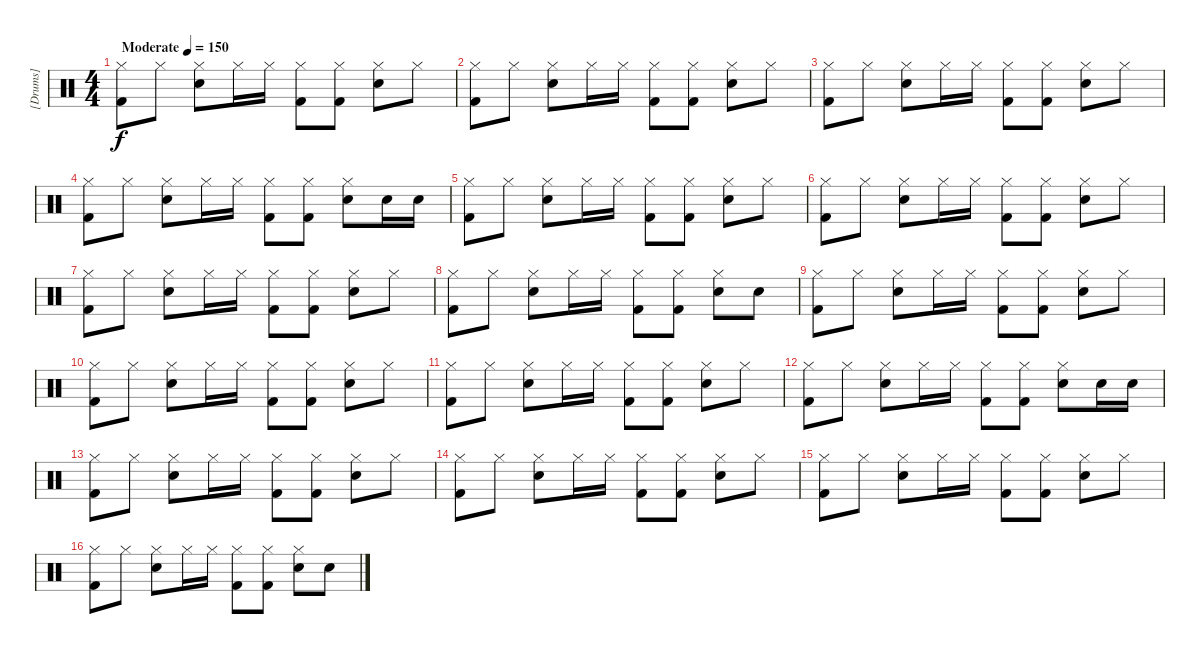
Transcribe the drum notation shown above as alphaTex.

\track ("[Drums]" "[Drums]") {instrument percussion}
\staff {score}
\articulation defaults
\ts (4 4)
\tempo (150 "Moderate")
\clef neutral
\ks c
("Hi-Hat (closed)" "Kick (hit) 2").8{dy f} "Hi-Hat (closed)".8 ("Hi-Hat (closed)" "Electric Snare (hit)").8 "Hi-Hat (closed)".16 "Hi-Hat (closed)".16 ("Hi-Hat (closed)" "Kick (hit) 2").8 ("Hi-Hat (closed)" "Kick (hit) 2").8 ("Hi-Hat (closed)" "Electric Snare (hit)").8 "Hi-Hat (closed)".8 |
("Hi-Hat (closed)" "Kick (hit) 2").8 "Hi-Hat (closed)".8 ("Hi-Hat (closed)" "Electric Snare (hit)").8 "Hi-Hat (closed)".16 "Hi-Hat (closed)".16 ("Hi-Hat (closed)" "Kick (hit) 2").8 ("Hi-Hat (closed)" "Kick (hit) 2").8 ("Hi-Hat (closed)" "Electric Snare (hit)").8 "Hi-Hat (closed)".8 |
("Hi-Hat (closed)" "Kick (hit) 2").8 "Hi-Hat (closed)".8 ("Hi-Hat (closed)" "Electric Snare (hit)").8 "Hi-Hat (closed)".16 "Hi-Hat (closed)".16 ("Hi-Hat (closed)" "Kick (hit) 2").8 ("Hi-Hat (closed)" "Kick (hit) 2").8 ("Hi-Hat (closed)" "Electric Snare (hit)").8 "Hi-Hat (closed)".8 |
("Hi-Hat (closed)" "Kick (hit) 2").8 "Hi-Hat (closed)".8 ("Hi-Hat (closed)" "Electric Snare (hit)").8 "Hi-Hat (closed)".16 "Hi-Hat (closed)".16 ("Hi-Hat (closed)" "Kick (hit) 2").8 ("Hi-Hat (closed)" "Kick (hit) 2").8 ("Hi-Hat (closed)" "Electric Snare (hit)").8 "Electric Snare (hit)".16 "Electric Snare (hit)".16 |
("Hi-Hat (closed)" "Kick (hit) 2").8 "Hi-Hat (closed)".8 ("Hi-Hat (closed)" "Electric Snare (hit)").8 "Hi-Hat (closed)".16 "Hi-Hat (closed)".16 ("Hi-Hat (closed)" "Kick (hit) 2").8 ("Hi-Hat (closed)" "Kick (hit) 2").8 ("Hi-Hat (closed)" "Electric Snare (hit)").8 "Hi-Hat (closed)".8 |
("Hi-Hat (closed)" "Kick (hit) 2").8 "Hi-Hat (closed)".8 ("Hi-Hat (closed)" "Electric Snare (hit)").8 "Hi-Hat (closed)".16 "Hi-Hat (closed)".16 ("Hi-Hat (closed)" "Kick (hit) 2").8 ("Hi-Hat (closed)" "Kick (hit) 2").8 ("Hi-Hat (closed)" "Electric Snare (hit)").8 "Hi-Hat (closed)".8 |
("Hi-Hat (closed)" "Kick (hit) 2").8 "Hi-Hat (closed)".8 ("Hi-Hat (closed)" "Electric Snare (hit)").8 "Hi-Hat (closed)".16 "Hi-Hat (closed)".16 ("Hi-Hat (closed)" "Kick (hit) 2").8 ("Hi-Hat (closed)" "Kick (hit) 2").8 ("Hi-Hat (closed)" "Electric Snare (hit)").8 "Hi-Hat (closed)".8 |
("Hi-Hat (closed)" "Kick (hit) 2").8 "Hi-Hat (closed)".8 ("Hi-Hat (closed)" "Electric Snare (hit)").8 "Hi-Hat (closed)".16 "Hi-Hat (closed)".16 ("Hi-Hat (closed)" "Kick (hit) 2").8 ("Hi-Hat (closed)" "Kick (hit) 2").8 ("Hi-Hat (closed)" "Electric Snare (hit)").8 "Electric Snare (hit)".8 |
("Hi-Hat (closed)" "Kick (hit) 2").8 "Hi-Hat (closed)".8 ("Hi-Hat (closed)" "Electric Snare (hit)").8 "Hi-Hat (closed)".16 "Hi-Hat (closed)".16 ("Hi-Hat (closed)" "Kick (hit) 2").8 ("Hi-Hat (closed)" "Kick (hit) 2").8 ("Hi-Hat (closed)" "Electric Snare (hit)").8 "Hi-Hat (closed)".8 |
("Hi-Hat (closed)" "Kick (hit) 2").8 "Hi-Hat (closed)".8 ("Hi-Hat (closed)" "Electric Snare (hit)").8 "Hi-Hat (closed)".16 "Hi-Hat (closed)".16 ("Hi-Hat (closed)" "Kick (hit) 2").8 ("Hi-Hat (closed)" "Kick (hit) 2").8 ("Hi-Hat (closed)" "Electric Snare (hit)").8 "Hi-Hat (closed)".8 |
("Hi-Hat (closed)" "Kick (hit) 2").8 "Hi-Hat (closed)".8 ("Hi-Hat (closed)" "Electric Snare (hit)").8 "Hi-Hat (closed)".16 "Hi-Hat (closed)".16 ("Hi-Hat (closed)" "Kick (hit) 2").8 ("Hi-Hat (closed)" "Kick (hit) 2").8 ("Hi-Hat (closed)" "Electric Snare (hit)").8 "Hi-Hat (closed)".8 |
("Hi-Hat (closed)" "Kick (hit) 2").8 "Hi-Hat (closed)".8 ("Hi-Hat (closed)" "Electric Snare (hit)").8 "Hi-Hat (closed)".16 "Hi-Hat (closed)".16 ("Hi-Hat (closed)" "Kick (hit) 2").8 ("Hi-Hat (closed)" "Kick (hit) 2").8 ("Hi-Hat (closed)" "Electric Snare (hit)").8 "Electric Snare (hit)".16 "Electric Snare (hit)".16 |
("Hi-Hat (closed)" "Kick (hit) 2").8 "Hi-Hat (closed)".8 ("Hi-Hat (closed)" "Electric Snare (hit)").8 "Hi-Hat (closed)".16 "Hi-Hat (closed)".16 ("Hi-Hat (closed)" "Kick (hit) 2").8 ("Hi-Hat (closed)" "Kick (hit) 2").8 ("Hi-Hat (closed)" "Electric Snare (hit)").8 "Hi-Hat (closed)".8 |
("Hi-Hat (closed)" "Kick (hit) 2").8 "Hi-Hat (closed)".8 ("Hi-Hat (closed)" "Electric Snare (hit)").8 "Hi-Hat (closed)".16 "Hi-Hat (closed)".16 ("Hi-Hat (closed)" "Kick (hit) 2").8 ("Hi-Hat (closed)" "Kick (hit) 2").8 ("Hi-Hat (closed)" "Electric Snare (hit)").8 "Hi-Hat (closed)".8 |
("Hi-Hat (closed)" "Kick (hit) 2").8 "Hi-Hat (closed)".8 ("Hi-Hat (closed)" "Electric Snare (hit)").8 "Hi-Hat (closed)".16 "Hi-Hat (closed)".16 ("Hi-Hat (closed)" "Kick (hit) 2").8 ("Hi-Hat (closed)" "Kick (hit) 2").8 ("Hi-Hat (closed)" "Electric Snare (hit)").8 "Hi-Hat (closed)".8 |
("Hi-Hat (closed)" "Kick (hit) 2").8 "Hi-Hat (closed)".8 ("Hi-Hat (closed)" "Electric Snare (hit)").8 "Hi-Hat (closed)".16 "Hi-Hat (closed)".16 ("Hi-Hat (closed)" "Kick (hit) 2").8 ("Hi-Hat (closed)" "Kick (hit) 2").8 ("Hi-Hat (closed)" "Electric Snare (hit)").8 "Electric Snare (hit)".8
